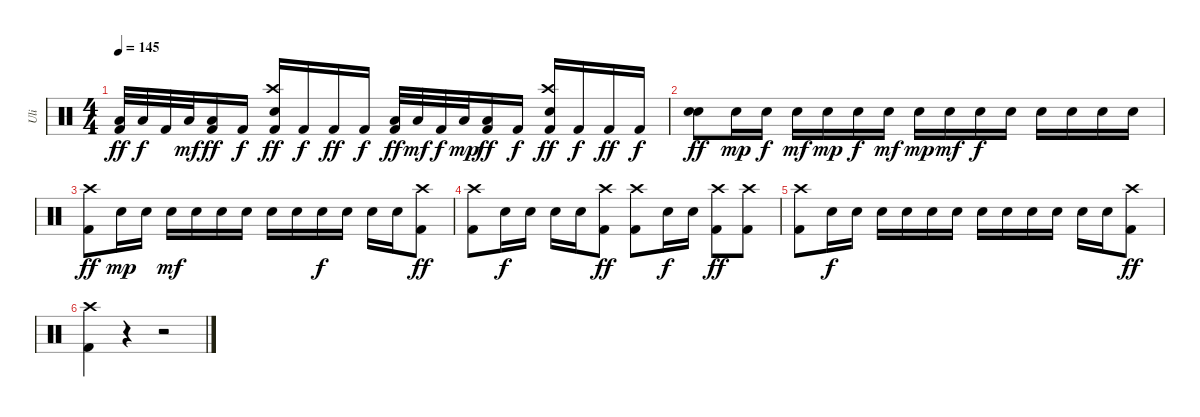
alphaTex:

\track ("Uli" "Uli") {instrument percussion}
\staff {score}
\articulation defaults
\ts (4 4)
\tempo 145
\clef neutral
\ks c
("Low Tom (hit)" "Kick (hit) 2").32{dy ff} "Low Tom (hit)".32{dy f} "Kick (hit) 2".32 "Low Tom (hit)".32{dy mf} ("Low Tom (hit)" "Kick (hit) 2").16{dy ff} "Kick (hit) 2".16{dy f} ("Crash high (hit)" "Electric Snare (hit)" "Kick (hit) 2").16{dy ff} "Kick (hit) 2".16{dy f} "Kick (hit) 2".16{dy ff} "Kick (hit) 2".16{dy f} ("Low Tom (hit)" "Kick (hit) 2").32{dy ff} "Low Tom (hit)".32{dy mf} "Kick (hit) 2".32{dy f} "Low Tom (hit)".32{dy mp} ("Low Tom (hit)" "Kick (hit) 2").16{dy ff} "Kick (hit) 2".16{dy f} ("Crash high (hit)" "Electric Snare (hit)" "Kick (hit) 2").16{dy ff} "Kick (hit) 2".16{dy f} "Kick (hit) 2".16{dy ff} "Kick (hit) 2".16{dy f} |
("Electric Snare (hit)" "Electric Snare (hit)").8{dy ff} "Electric Snare (hit)".16{dy mp} "Electric Snare (hit)".16{dy f} "Electric Snare (hit)".16{dy mf} "Electric Snare (hit)".16{dy mp} "Electric Snare (hit)".16{dy f} "Electric Snare (hit)".16{dy mf} "Electric Snare (hit)".16{dy mp} "Electric Snare (hit)".16{dy mf} "Electric Snare (hit)".16{dy f} "Electric Snare (hit)".16 "Electric Snare (hit)".16 "Electric Snare (hit)".16 "Electric Snare (hit)".16 "Electric Snare (hit)".16 |
("Crash high (hit)" "Kick (hit) 2").8{dy ff} "Electric Snare (hit)".16{dy mp} "Electric Snare (hit)".16 "Electric Snare (hit)".16{dy mf} "Electric Snare (hit)".16 "Electric Snare (hit)".16 "Electric Snare (hit)".16 "Electric Snare (hit)".16 "Electric Snare (hit)".16 "Electric Snare (hit)".16{dy f} "Electric Snare (hit)".16 "Electric Snare (hit)".16 "Electric Snare (hit)".16 ("Crash high (hit)" "Kick (hit) 2").8{dy ff} |
("Crash high (hit)" "Kick (hit) 2").8 "Electric Snare (hit)".16{dy f} "Electric Snare (hit)".16 "Electric Snare (hit)".16 "Electric Snare (hit)".16 ("Crash high (hit)" "Kick (hit) 2").8{dy ff} ("Crash high (hit)" "Kick (hit) 2").8 "Electric Snare (hit)".16{dy f} "Electric Snare (hit)".16 ("Crash high (hit)" "Kick (hit) 2").8{dy ff} ("Crash high (hit)" "Kick (hit) 2").8 |
("Crash high (hit)" "Kick (hit) 2").8 "Electric Snare (hit)".16{dy f} "Electric Snare (hit)".16 "Electric Snare (hit)".16 "Electric Snare (hit)".16 "Electric Snare (hit)".16 "Electric Snare (hit)".16 "Electric Snare (hit)".16 "Electric Snare (hit)".16 "Electric Snare (hit)".16 "Electric Snare (hit)".16 "Electric Snare (hit)".16 "Electric Snare (hit)".16 ("Crash high (hit)" "Kick (hit) 2").8{dy ff} |
("Crash high (hit)" "Kick (hit) 2").4 r.4 r.2
